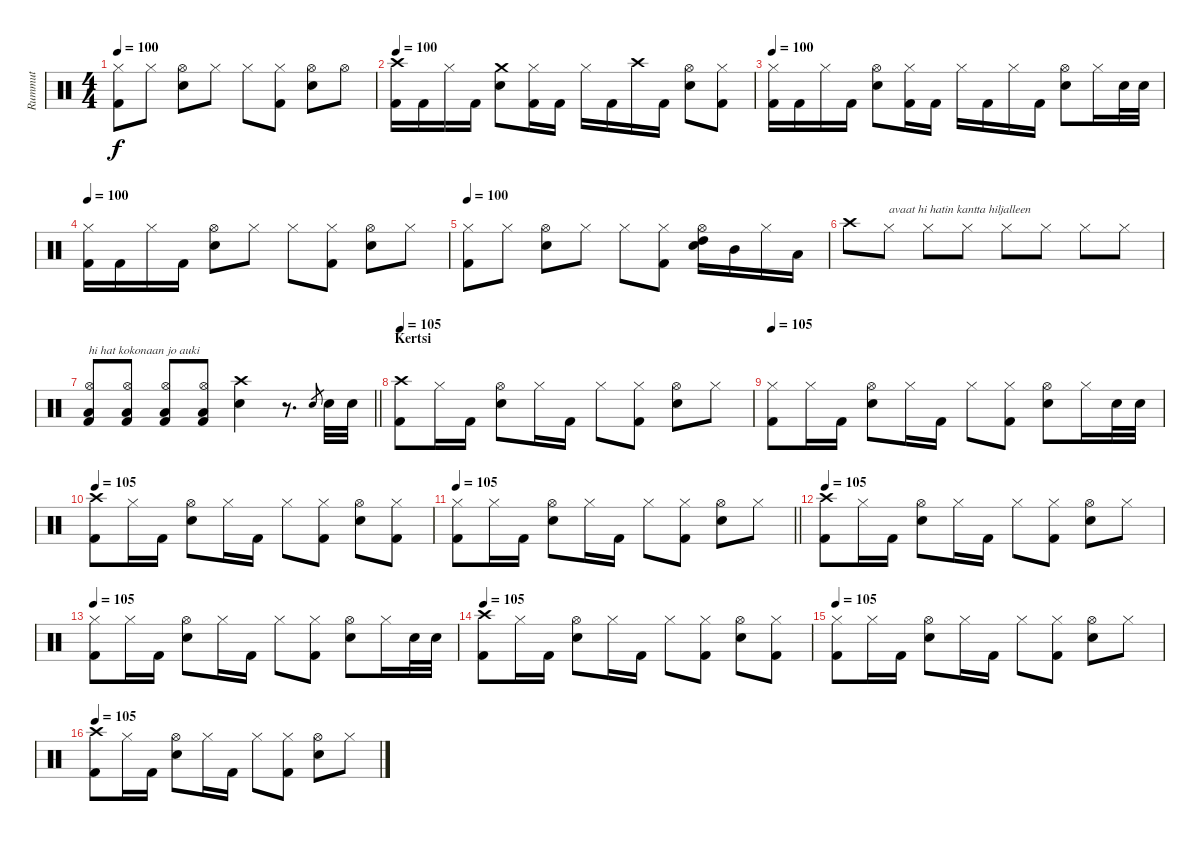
\track ("Rummut" "Rummut") {instrument percussion}
\staff {score}
\articulation defaults
\ts (4 4)
\tempo 100
\clef neutral
\ks c
("Hi-Hat (closed)" "Kick (hit) 2").8{dy f} "Hi-Hat (closed)".8 ("Hi-Hat (open)" "Snare (hit) 2").8 "Hi-Hat (closed)".8 "Hi-Hat (closed)".8 ("Hi-Hat (closed)" "Kick (hit) 2").8 ("Hi-Hat (open)" "Snare (hit) 2").8 "Hi-Hat (open)".8 |
\tempo 100
("Crash high (hit)" "Kick (hit) 2").16 "Kick (hit) 2".16 "Hi-Hat (closed)".16 "Kick (hit) 2".16 ("Crash medium (hit)" "Snare (hit) 2").8 ("Hi-Hat (closed)" "Kick (hit) 2").16 "Kick (hit) 2".16 "Hi-Hat (closed)".16 "Kick (hit) 2".16 "Crash high (hit)".16 "Kick (hit) 2".16 ("Hi-Hat (open)" "Snare (hit) 2").8 ("Hi-Hat (closed)" "Kick (hit) 2").8 |
\tempo 100
("Hi-Hat (closed)" "Kick (hit) 2").16 "Kick (hit) 2".16 "Hi-Hat (closed)".16 "Kick (hit) 2".16 ("Hi-Hat (open)" "Snare (hit) 2").8 ("Hi-Hat (closed)" "Kick (hit) 2").16 "Kick (hit) 2".16 "Hi-Hat (closed)".16 "Kick (hit) 2".16 "Hi-Hat (closed)".16 "Kick (hit) 2".16 ("Hi-Hat (open)" "Snare (hit) 2").8 "Hi-Hat (closed)".16 "Snare (hit) 2".32 "Snare (hit) 2".32 |
\tempo 100
("Hi-Hat (closed)" "Kick (hit) 2").16 "Kick (hit) 2".16 "Hi-Hat (closed)".16 "Kick (hit) 2".16 ("Hi-Hat (open)" "Snare (hit) 2").8 "Hi-Hat (closed)".8 "Hi-Hat (closed)".8 ("Hi-Hat (closed)" "Kick (hit) 2").8 ("Hi-Hat (open)" "Snare (hit) 2").8 "Hi-Hat (closed)".8 |
\tempo 100
("Hi-Hat (closed)" "Kick (hit) 2").8 "Hi-Hat (closed)".8 ("Hi-Hat (open)" "Snare (hit) 2").8 "Hi-Hat (closed)".8 "Hi-Hat (closed)".8 ("Hi-Hat (closed)" "Kick (hit) 2").8 ("Hi-Hat (open)" "High Tom (hit)" "Snare (hit) 2").16 "Mid Tom (hit)".16 "Hi-Hat (closed)".16 "Low Floor Tom (hit)".16 |
"Crash high (hit)".8 "Hi-Hat (closed)".8{txt "avaat hi hatin kantta hiljalleen"} "Hi-Hat (closed)".8 "Hi-Hat (closed)".8 "Hi-Hat (closed)".8 "Hi-Hat (closed)".8 "Hi-Hat (closed)".8 "Hi-Hat (closed)".8 |
\barLineRight lightlight
("Hi-Hat (open)" "Low Floor Tom (hit)" "Kick (hit) 2").8{txt "hi hat kokonaan jo auki"} ("Hi-Hat (open)" "Low Floor Tom (hit)" "Kick (hit) 2").8 ("Hi-Hat (open)" "Low Floor Tom (hit)" "Kick (hit) 2").8 ("Hi-Hat (open)" "Low Floor Tom (hit)" "Kick (hit) 2").8 ("Crash high (hit)" "Snare (hit) 2").4 r.8{d} "Snare (hit) 2".8{gr} "Snare (hit) 2".32 "Snare (hit) 2".32 |
\section ("" "Kertsi")
\tempo 105
("Crash high (hit)" "Kick (hit) 2").8 "Hi-Hat (closed)".16 "Kick (hit) 2".16 ("Hi-Hat (open)" "Snare (hit) 2").8 "Hi-Hat (closed)".16 "Kick (hit) 2".16 "Hi-Hat (closed)".8 ("Hi-Hat (closed)" "Kick (hit) 2").8 ("Hi-Hat (open)" "Snare (hit) 2").8 "Hi-Hat (closed)".8 |
\tempo 105
("Hi-Hat (closed)" "Kick (hit) 2").8 "Hi-Hat (closed)".16 "Kick (hit) 2".16 ("Hi-Hat (open)" "Snare (hit) 2").8 "Hi-Hat (closed)".16 "Kick (hit) 2".16 "Hi-Hat (closed)".8 ("Hi-Hat (closed)" "Kick (hit) 2").8 ("Hi-Hat (open)" "Snare (hit) 2").8 "Hi-Hat (closed)".16 "Snare (hit) 2".32 "Snare (hit) 2".32 |
\tempo 105
("Crash high (hit)" "Kick (hit) 2").8 "Hi-Hat (closed)".16 "Kick (hit) 2".16 ("Hi-Hat (open)" "Snare (hit) 2").8 "Hi-Hat (closed)".16 "Kick (hit) 2".16 "Hi-Hat (closed)".8 ("Hi-Hat (closed)" "Kick (hit) 2").8 ("Hi-Hat (open)" "Snare (hit) 2").8 ("Hi-Hat (closed)" "Kick (hit) 2").8 |
\tempo 105
\barLineRight lightlight
("Hi-Hat (closed)" "Kick (hit) 2").8 "Hi-Hat (closed)".16 "Kick (hit) 2".16 ("Hi-Hat (open)" "Snare (hit) 2").8 "Hi-Hat (closed)".16 "Kick (hit) 2".16 "Hi-Hat (closed)".8 ("Hi-Hat (closed)" "Kick (hit) 2").8 ("Hi-Hat (open)" "Snare (hit) 2").8 "Hi-Hat (closed)".8 |
\tempo 105
("Crash high (hit)" "Kick (hit) 2").8 "Hi-Hat (closed)".16 "Kick (hit) 2".16 ("Hi-Hat (open)" "Snare (hit) 2").8 "Hi-Hat (closed)".16 "Kick (hit) 2".16 "Hi-Hat (closed)".8 ("Hi-Hat (closed)" "Kick (hit) 2").8 ("Hi-Hat (open)" "Snare (hit) 2").8 "Hi-Hat (closed)".8 |
\tempo 105
("Hi-Hat (closed)" "Kick (hit) 2").8 "Hi-Hat (closed)".16 "Kick (hit) 2".16 ("Hi-Hat (open)" "Snare (hit) 2").8 "Hi-Hat (closed)".16 "Kick (hit) 2".16 "Hi-Hat (closed)".8 ("Hi-Hat (closed)" "Kick (hit) 2").8 ("Hi-Hat (open)" "Snare (hit) 2").8 "Hi-Hat (closed)".16 "Snare (hit) 2".32 "Snare (hit) 2".32 |
\tempo 105
("Crash high (hit)" "Kick (hit) 2").8 "Hi-Hat (closed)".16 "Kick (hit) 2".16 ("Hi-Hat (open)" "Snare (hit) 2").8 "Hi-Hat (closed)".16 "Kick (hit) 2".16 "Hi-Hat (closed)".8 ("Hi-Hat (closed)" "Kick (hit) 2").8 ("Hi-Hat (open)" "Snare (hit) 2").8 ("Hi-Hat (closed)" "Kick (hit) 2").8 |
\tempo 105
("Hi-Hat (closed)" "Kick (hit) 2").8 "Hi-Hat (closed)".16 "Kick (hit) 2".16 ("Hi-Hat (open)" "Snare (hit) 2").8 "Hi-Hat (closed)".16 "Kick (hit) 2".16 "Hi-Hat (closed)".8 ("Hi-Hat (closed)" "Kick (hit) 2").8 ("Hi-Hat (open)" "Snare (hit) 2").8 "Hi-Hat (closed)".8 |
\tempo 105
("Crash high (hit)" "Kick (hit) 2").8 "Hi-Hat (closed)".16 "Kick (hit) 2".16 ("Hi-Hat (open)" "Snare (hit) 2").8 "Hi-Hat (closed)".16 "Kick (hit) 2".16 "Hi-Hat (closed)".8 ("Hi-Hat (closed)" "Kick (hit) 2").8 ("Hi-Hat (open)" "Snare (hit) 2").8 "Hi-Hat (closed)".8
